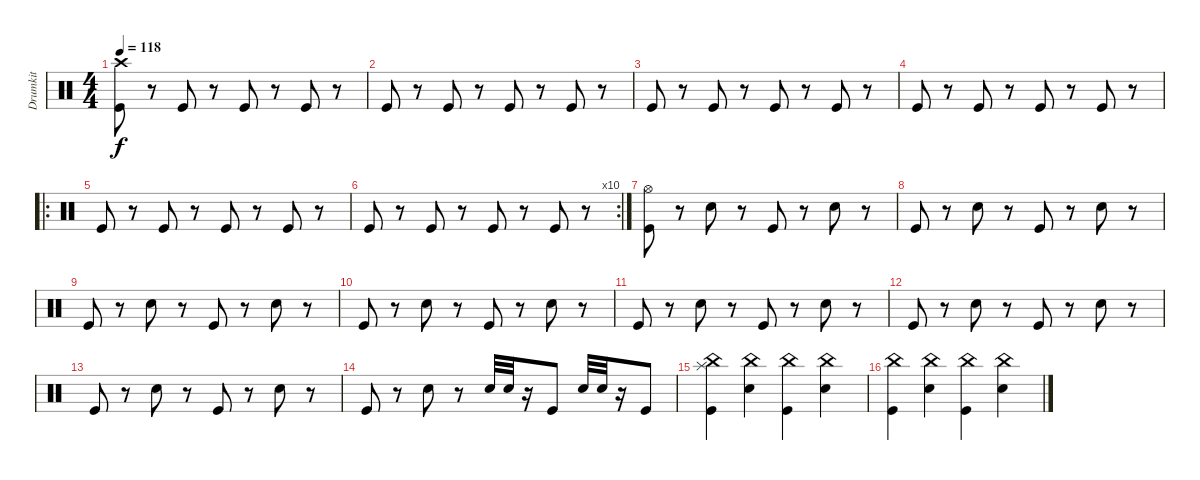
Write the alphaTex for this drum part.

\track ("Drumkit" "Drumkit") {instrument percussion}
\staff {score}
\articulation defaults
\ts (4 4)
\tempo 118
\clef neutral
\ks c
("Kick (hit)" "Crash high (hit)").8{dy f} r.8 "Kick (hit)".8 r.8 "Kick (hit)".8 r.8 "Kick (hit)".8 r.8 |
"Kick (hit)".8 r.8 "Kick (hit)".8 r.8 "Kick (hit)".8 r.8 "Kick (hit)".8 r.8 |
"Kick (hit)".8 r.8 "Kick (hit)".8 r.8 "Kick (hit)".8 r.8 "Kick (hit)".8 r.8 |
"Kick (hit)".8 r.8 "Kick (hit)".8 r.8 "Kick (hit)".8 r.8 "Kick (hit)".8 r.8 |
\ro "Kick (hit)".8
r.8 "Kick (hit)".8 r.8 "Kick (hit)".8 r.8 "Kick (hit)".8 r.8 |
\rc 10 "Kick (hit)".8
r.8 "Kick (hit)".8 r.8 "Kick (hit)".8 r.8 "Kick (hit)".8 r.8 |
("Kick (hit)" "Hi-Hat (open)").8 r.8 "Snare (hit) 2".8 r.8 "Kick (hit)".8 r.8 "Snare (hit) 2".8 r.8 |
"Kick (hit)".8 r.8 "Snare (hit) 2".8 r.8 "Kick (hit)".8 r.8 "Snare (hit) 2".8 r.8 |
"Kick (hit)".8 r.8 "Snare (hit) 2".8 r.8 "Kick (hit)".8 r.8 "Snare (hit) 2".8 r.8 |
"Kick (hit)".8 r.8 "Snare (hit) 2".8 r.8 "Kick (hit)".8 r.8 "Snare (hit) 2".8 r.8 |
"Kick (hit)".8 r.8 "Snare (hit) 2".8 r.8 "Kick (hit)".8 r.8 "Snare (hit) 2".8 r.8 |
"Kick (hit)".8 r.8 "Snare (hit) 2".8 r.8 "Kick (hit)".8 r.8 "Snare (hit) 2".8 r.8 |
"Kick (hit)".8 r.8 "Snare (hit) 2".8 r.8 "Kick (hit)".8 r.8 "Snare (hit) 2".8 r.8 |
"Kick (hit)".8 r.8 "Snare (hit) 2".8 r.8 "Snare (hit) 2".32 "Snare (hit) 2".32 r.16 "Kick (hit)".8 "Snare (hit) 2".32 "Snare (hit) 2".32 r.16 "Kick (hit)".8 |
("China (hit)" "Kick (hit)" "Splash (hit)").4 ("China (hit)" "Snare (hit) 2").4 ("China (hit)" "Kick (hit)").4 ("China (hit)" "Snare (hit) 2").4 |
("China (hit)" "Kick (hit)").4 ("China (hit)" "Snare (hit) 2").4 ("China (hit)" "Kick (hit)").4 ("China (hit)" "Snare (hit) 2").4
